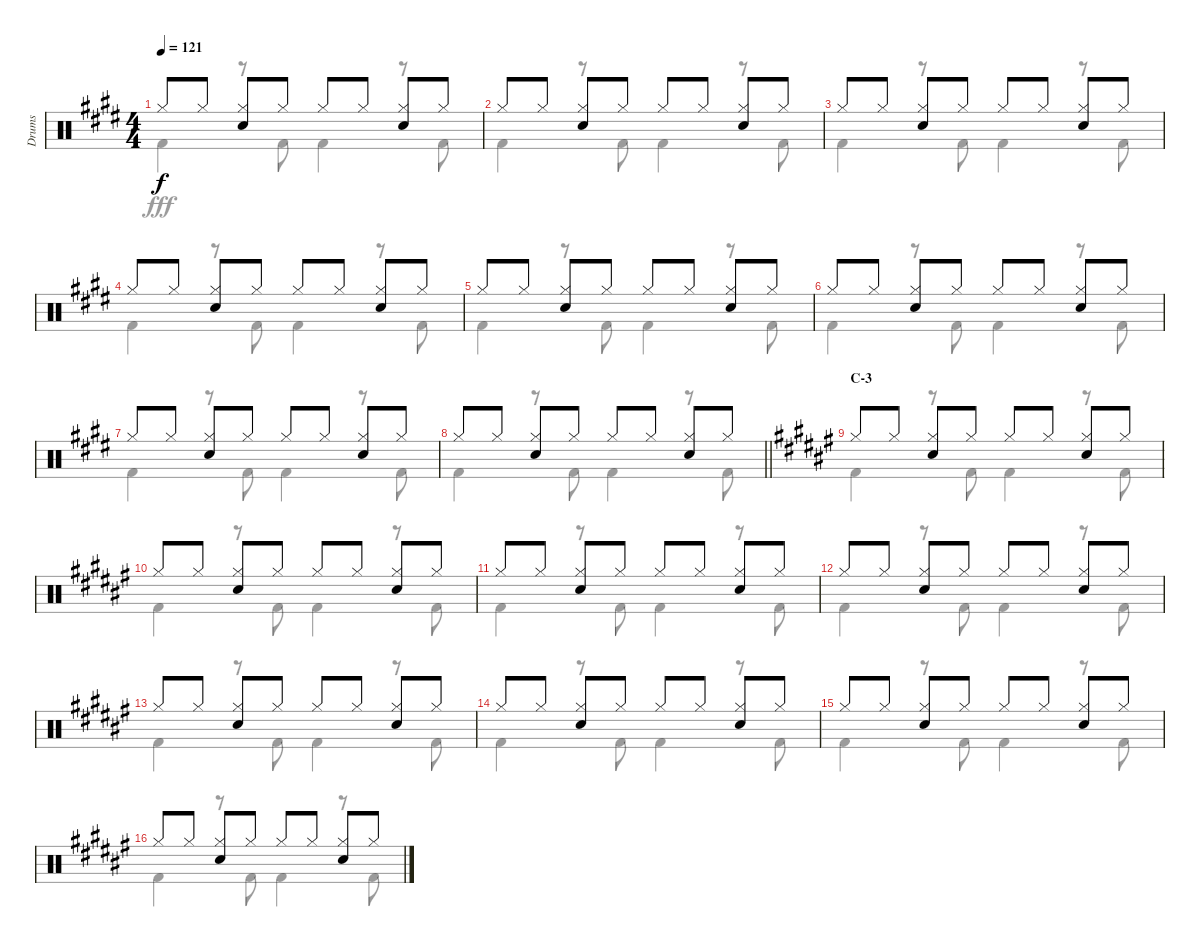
\track ("Drums" "Drums") {instrument percussion}
\staff {score}
\articulation defaults
\voice
\ts (4 4)
\tempo 121
\clef neutral
\ks e "Hi-Hat (closed)".8{dy f} "Hi-Hat (closed)".8
("Hi-Hat (closed)" "Snare (hit) 2").8 "Hi-Hat (closed)".8 "Hi-Hat (closed)".8 "Hi-Hat (closed)".8 ("Hi-Hat (closed)" "Snare (hit) 2").8 "Hi-Hat (closed)".8 |
"Hi-Hat (closed)".8 "Hi-Hat (closed)".8 ("Hi-Hat (closed)" "Snare (hit) 2").8 "Hi-Hat (closed)".8 "Hi-Hat (closed)".8 "Hi-Hat (closed)".8 ("Hi-Hat (closed)" "Snare (hit) 2").8 "Hi-Hat (closed)".8 |
"Hi-Hat (closed)".8 "Hi-Hat (closed)".8 ("Hi-Hat (closed)" "Snare (hit) 2").8 "Hi-Hat (closed)".8 "Hi-Hat (closed)".8 "Hi-Hat (closed)".8 ("Hi-Hat (closed)" "Snare (hit) 2").8 "Hi-Hat (closed)".8 |
"Hi-Hat (closed)".8 "Hi-Hat (closed)".8 ("Hi-Hat (closed)" "Snare (hit) 2").8 "Hi-Hat (closed)".8 "Hi-Hat (closed)".8 "Hi-Hat (closed)".8 ("Hi-Hat (closed)" "Snare (hit) 2").8 "Hi-Hat (closed)".8 |
"Hi-Hat (closed)".8 "Hi-Hat (closed)".8 ("Hi-Hat (closed)" "Snare (hit) 2").8 "Hi-Hat (closed)".8 "Hi-Hat (closed)".8 "Hi-Hat (closed)".8 ("Hi-Hat (closed)" "Snare (hit) 2").8 "Hi-Hat (closed)".8 |
"Hi-Hat (closed)".8 "Hi-Hat (closed)".8 ("Hi-Hat (closed)" "Snare (hit) 2").8 "Hi-Hat (closed)".8 "Hi-Hat (closed)".8 "Hi-Hat (closed)".8 ("Hi-Hat (closed)" "Snare (hit) 2").8 "Hi-Hat (closed)".8 |
"Hi-Hat (closed)".8 "Hi-Hat (closed)".8 ("Hi-Hat (closed)" "Snare (hit) 2").8 "Hi-Hat (closed)".8 "Hi-Hat (closed)".8 "Hi-Hat (closed)".8 ("Hi-Hat (closed)" "Snare (hit) 2").8 "Hi-Hat (closed)".8 |
\barLineRight lightlight "Hi-Hat (closed)".8 "Hi-Hat (closed)".8
("Hi-Hat (closed)" "Snare (hit) 2").8 "Hi-Hat (closed)".8 "Hi-Hat (closed)".8 "Hi-Hat (closed)".8 ("Hi-Hat (closed)" "Snare (hit) 2").8 "Hi-Hat (closed)".8 |
\section ("" "C-3")
\ks f# "Hi-Hat (closed)".8 "Hi-Hat (closed)".8
("Hi-Hat (closed)" "Snare (hit) 2").8 "Hi-Hat (closed)".8 "Hi-Hat (closed)".8 "Hi-Hat (closed)".8 ("Hi-Hat (closed)" "Snare (hit) 2").8 "Hi-Hat (closed)".8 |
"Hi-Hat (closed)".8 "Hi-Hat (closed)".8 ("Hi-Hat (closed)" "Snare (hit) 2").8 "Hi-Hat (closed)".8 "Hi-Hat (closed)".8 "Hi-Hat (closed)".8 ("Hi-Hat (closed)" "Snare (hit) 2").8 "Hi-Hat (closed)".8 |
"Hi-Hat (closed)".8 "Hi-Hat (closed)".8 ("Hi-Hat (closed)" "Snare (hit) 2").8 "Hi-Hat (closed)".8 "Hi-Hat (closed)".8 "Hi-Hat (closed)".8 ("Hi-Hat (closed)" "Snare (hit) 2").8 "Hi-Hat (closed)".8 |
"Hi-Hat (closed)".8 "Hi-Hat (closed)".8 ("Hi-Hat (closed)" "Snare (hit) 2").8 "Hi-Hat (closed)".8 "Hi-Hat (closed)".8 "Hi-Hat (closed)".8 ("Hi-Hat (closed)" "Snare (hit) 2").8 "Hi-Hat (closed)".8 |
"Hi-Hat (closed)".8 "Hi-Hat (closed)".8 ("Hi-Hat (closed)" "Snare (hit) 2").8 "Hi-Hat (closed)".8 "Hi-Hat (closed)".8 "Hi-Hat (closed)".8 ("Hi-Hat (closed)" "Snare (hit) 2").8 "Hi-Hat (closed)".8 |
"Hi-Hat (closed)".8 "Hi-Hat (closed)".8 ("Hi-Hat (closed)" "Snare (hit) 2").8 "Hi-Hat (closed)".8 "Hi-Hat (closed)".8 "Hi-Hat (closed)".8 ("Hi-Hat (closed)" "Snare (hit) 2").8 "Hi-Hat (closed)".8 |
"Hi-Hat (closed)".8{volume 0} "Hi-Hat (closed)".8 ("Hi-Hat (closed)" "Snare (hit) 2").8 "Hi-Hat (closed)".8 "Hi-Hat (closed)".8 "Hi-Hat (closed)".8 ("Hi-Hat (closed)" "Snare (hit) 2").8 "Hi-Hat (closed)".8 |
"Hi-Hat (closed)".8 "Hi-Hat (closed)".8 ("Hi-Hat (closed)" "Snare (hit) 2").8 "Hi-Hat (closed)".8 "Hi-Hat (closed)".8 "Hi-Hat (closed)".8 ("Hi-Hat (closed)" "Snare (hit) 2").8 "Hi-Hat (closed)".8
\voice
\clef neutral
\ottava regular
\simile none
\ks e "Kick (hit) 2".4{dy fff}
r.8 "Kick (hit) 2".8 "Kick (hit) 2".4 r.8 "Kick (hit) 2".8 |
"Kick (hit) 2".4 r.8 "Kick (hit) 2".8 "Kick (hit) 2".4 r.8 "Kick (hit) 2".8 |
"Kick (hit) 2".4 r.8 "Kick (hit) 2".8 "Kick (hit) 2".4 r.8 "Kick (hit) 2".8 |
"Kick (hit) 2".4 r.8 "Kick (hit) 2".8 "Kick (hit) 2".4 r.8 "Kick (hit) 2".8 |
"Kick (hit) 2".4 r.8 "Kick (hit) 2".8 "Kick (hit) 2".4 r.8 "Kick (hit) 2".8 |
"Kick (hit) 2".4 r.8 "Kick (hit) 2".8 "Kick (hit) 2".4 r.8 "Kick (hit) 2".8 |
"Kick (hit) 2".4 r.8 "Kick (hit) 2".8 "Kick (hit) 2".4 r.8 "Kick (hit) 2".8 |
\barLineRight lightlight "Kick (hit) 2".4
r.8 "Kick (hit) 2".8 "Kick (hit) 2".4 r.8 "Kick (hit) 2".8 |
\ks f# "Kick (hit) 2".4
r.8 "Kick (hit) 2".8 "Kick (hit) 2".4 r.8 "Kick (hit) 2".8 |
"Kick (hit) 2".4 r.8 "Kick (hit) 2".8 "Kick (hit) 2".4 r.8 "Kick (hit) 2".8 |
"Kick (hit) 2".4 r.8 "Kick (hit) 2".8 "Kick (hit) 2".4 r.8 "Kick (hit) 2".8 |
"Kick (hit) 2".4 r.8 "Kick (hit) 2".8 "Kick (hit) 2".4 r.8 "Kick (hit) 2".8 |
"Kick (hit) 2".4 r.8 "Kick (hit) 2".8 "Kick (hit) 2".4 r.8 "Kick (hit) 2".8 |
"Kick (hit) 2".4 r.8 "Kick (hit) 2".8 "Kick (hit) 2".4 r.8 "Kick (hit) 2".8 |
"Kick (hit) 2".4 r.8 "Kick (hit) 2".8 "Kick (hit) 2".4 r.8 "Kick (hit) 2".8 |
"Kick (hit) 2".4 r.8 "Kick (hit) 2".8 "Kick (hit) 2".4 r.8 "Kick (hit) 2".8
